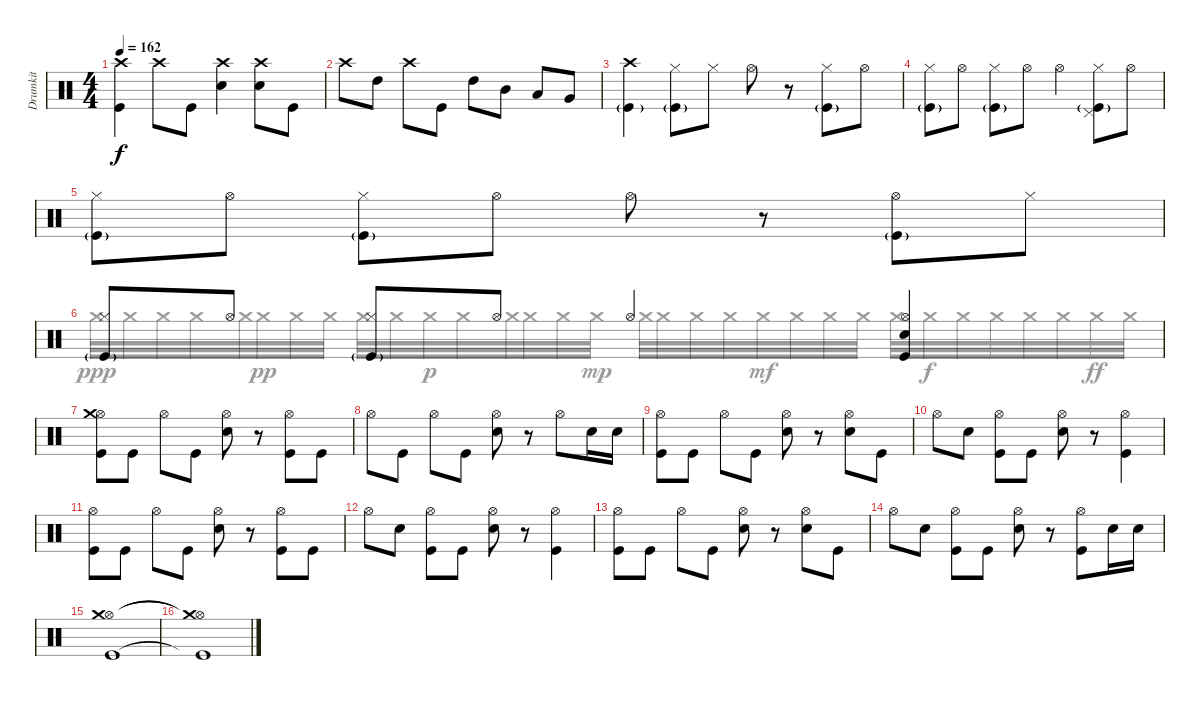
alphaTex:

\track ("Drumkit" "Drumkit") {instrument percussion}
\staff {score}
\articulation defaults
\voice
\ts (4 4)
\tempo 162
\clef neutral
\ks c
("Kick (hit)" "Crash high (hit)").4{dy f} "Crash high (hit)".8 "Kick (hit)".8 ("Snare (hit) 2" "Crash high (hit)").4 ("Snare (hit) 2" "Crash high (hit)").8 "Kick (hit)".8 |
"Crash high (hit)".8 "High Tom (hit)".8 "Crash high (hit)".8 "Kick (hit)".8 "High Tom (hit)".8 "Mid Tom (hit)".8 "Low Tom (hit)".8 "Very Low Tom (hit)".8 |
("Kick (hit)"{g} "Crash high (hit)").4 ("Kick (hit)"{g} "Hi-Hat (closed)").8 "Hi-Hat (closed)".8 "Hi-Hat (open)".8 r.8 ("Kick (hit)"{g} "Hi-Hat (closed)").8 "Hi-Hat (open)".8 |
("Kick (hit)"{g} "Hi-Hat (closed)").8 "Hi-Hat (open)".8 ("Kick (hit)"{g} "Hi-Hat (closed)").8 "Hi-Hat (open)".8 "Hi-Hat (open)".4 ("Kick (hit)"{g} "Pedal Hi-Hat (hit)" "Hi-Hat (closed)").8 "Hi-Hat (open)".8 |
("Kick (hit)"{g} "Hi-Hat (closed)").8 "Hi-Hat (open)".8 ("Kick (hit)"{g} "Hi-Hat (closed)").8 "Hi-Hat (open)".8 "Hi-Hat (open)".8 r.8 ("Kick (hit)"{g} "Hi-Hat (open)").8 "Hi-Hat (closed)".8 |
("Kick (hit)"{g} "Hi-Hat (closed)").8 "Hi-Hat (open)".8 ("Kick (hit)"{g} "Hi-Hat (closed)").8 "Hi-Hat (open)".8 "Hi-Hat (open)".4 ("Hi-Hat (open)" "Snare (hit) 2" "Kick (hit)").4 |
("Kick (hit)" "Hi-Hat (open)" "Crash medium (hit)").8 "Kick (hit)".8 "Hi-Hat (open)".8 "Kick (hit)".8 ("Snare (hit) 2" "Hi-Hat (open)").8 r.8 ("Kick (hit)" "Hi-Hat (open)").8 "Kick (hit)".8 |
"Hi-Hat (open)".8 "Kick (hit)".8 "Hi-Hat (open)".8 "Kick (hit)".8 ("Snare (hit) 2" "Hi-Hat (open)").8 r.8 "Hi-Hat (open)".8 "Snare (hit) 2".16 "Snare (hit) 2".16 |
("Kick (hit)" "Hi-Hat (open)").8 "Kick (hit)".8 "Hi-Hat (open)".8 "Kick (hit)".8 ("Snare (hit) 2" "Hi-Hat (open)").8 r.8 ("Hi-Hat (open)" "Snare (hit) 2").8 "Kick (hit)".8 |
"Hi-Hat (open)".8 "Snare (hit) 2".8 ("Hi-Hat (open)" "Kick (hit)").8 "Kick (hit)".8 ("Snare (hit) 2" "Hi-Hat (open)").8 r.8 ("Hi-Hat (open)" "Kick (hit)").4 |
("Kick (hit)" "Hi-Hat (open)").8 "Kick (hit)".8 "Hi-Hat (open)".8 "Kick (hit)".8 ("Snare (hit) 2" "Hi-Hat (open)").8 r.8 ("Kick (hit)" "Hi-Hat (open)").8 "Kick (hit)".8 |
"Hi-Hat (open)".8 "Snare (hit) 2".8 ("Hi-Hat (open)" "Kick (hit)").8 "Kick (hit)".8 ("Snare (hit) 2" "Hi-Hat (open)").8 r.8 ("Hi-Hat (open)" "Kick (hit)").4 |
("Kick (hit)" "Hi-Hat (open)").8 "Kick (hit)".8 "Hi-Hat (open)".8 "Kick (hit)".8 ("Snare (hit) 2" "Hi-Hat (open)").8 r.8 ("Hi-Hat (open)" "Snare (hit) 2").8 "Kick (hit)".8 |
"Hi-Hat (open)".8 "Snare (hit) 2".8 ("Hi-Hat (open)" "Kick (hit)").8 "Kick (hit)".8 ("Snare (hit) 2" "Hi-Hat (open)").8 r.8 ("Hi-Hat (open)" "Kick (hit)").8 "Snare (hit) 2".16 "Snare (hit) 2".16 |
("Hi-Hat (open)" "Kick (hit)" "Crash medium (hit)").1 |
("Hi-Hat (open)"{t} "Kick (hit)"{t} "Crash medium (hit)"{t}).1
\voice
\clef neutral
\ottava regular
\simile none
\ks c
|
|
|
|
|
"Crash medium (hit)".32{dy ppp} "Crash medium (hit)".32 "Crash medium (hit)".32 "Crash medium (hit)".32 "Crash medium (hit)".32 "Crash medium (hit)".32{dy pp} "Crash medium (hit)".32 "Crash medium (hit)".32 "Crash medium (hit)".32 "Crash medium (hit)".32 "Crash medium (hit)".32{dy p} "Crash medium (hit)".32 "Crash medium (hit)".32 "Crash medium (hit)".32 "Crash medium (hit)".32 "Crash medium (hit)".32{dy mp} "Crash medium (hit)".32 "Crash medium (hit)".32 "Crash medium (hit)".32 "Crash medium (hit)".32 "Crash medium (hit)".32{dy mf} "Crash medium (hit)".32 "Crash medium (hit)".32 "Crash medium (hit)".32 "Crash medium (hit)".32 "Crash medium (hit)".32{dy f} "Crash medium (hit)".32 "Crash medium (hit)".32 "Crash medium (hit)".32 "Crash medium (hit)".32 "Crash medium (hit)".32{dy ff} "Crash medium (hit)".32 |
|
|
|
|
|
|
|
|
|
